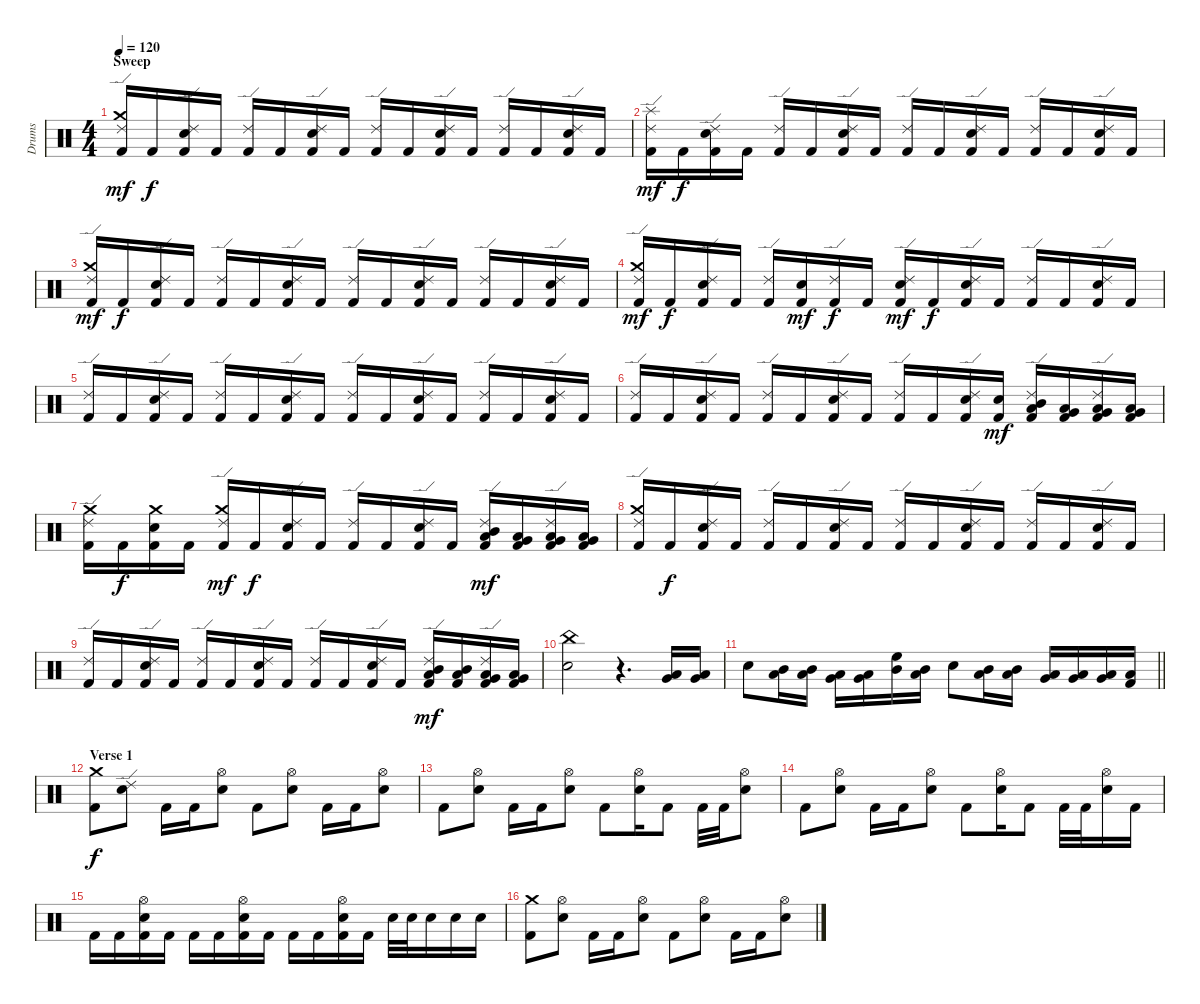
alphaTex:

\track ("Drums" "Drums") {instrument percussion}
\staff {score}
\articulation defaults
\ts (4 4)
\section ("" "Sweep")
\tempo 120
\clef neutral
\ks c
("Ride (edge) 2" "Crash medium (hit)" "Kick (hit) 2").16{dy mf} "Kick (hit) 2".16{dy f} ("Ride (edge) 2" "Electric Snare (hit)" "Kick (hit) 2").16 "Kick (hit) 2".16 ("Ride (edge) 2" "Kick (hit) 2").16 "Kick (hit) 2".16 ("Ride (edge) 2" "Electric Snare (hit)" "Kick (hit) 2").16 "Kick (hit) 2".16 ("Ride (edge) 2" "Kick (hit) 2").16 "Kick (hit) 2".16 ("Ride (edge) 2" "Electric Snare (hit)" "Kick (hit) 2").16 "Kick (hit) 2".16 ("Ride (edge) 2" "Kick (hit) 2").16 "Kick (hit) 2".16 ("Ride (edge) 2" "Electric Snare (hit)" "Kick (hit) 2").16 "Kick (hit) 2".16 |
("Ride (edge) 2" "Splash (hit)" "Kick (hit) 2").16{dy mf} "Kick (hit) 2".16{dy f} ("Ride (edge) 2" "Electric Snare (hit)" "Kick (hit) 2").16 "Kick (hit) 2".16 ("Ride (edge) 2" "Kick (hit) 2").16 "Kick (hit) 2".16 ("Ride (edge) 2" "Electric Snare (hit)" "Kick (hit) 2").16 "Kick (hit) 2".16 ("Ride (edge) 2" "Kick (hit) 2").16 "Kick (hit) 2".16 ("Ride (edge) 2" "Electric Snare (hit)" "Kick (hit) 2").16 "Kick (hit) 2".16 ("Ride (edge) 2" "Kick (hit) 2").16 "Kick (hit) 2".16 ("Ride (edge) 2" "Electric Snare (hit)" "Kick (hit) 2").16 "Kick (hit) 2".16 |
("Ride (edge) 2" "Crash medium (hit)" "Kick (hit) 2").16{dy mf} "Kick (hit) 2".16{dy f} ("Ride (edge) 2" "Electric Snare (hit)" "Kick (hit) 2").16 "Kick (hit) 2".16 ("Ride (edge) 2" "Kick (hit) 2").16 "Kick (hit) 2".16 ("Ride (edge) 2" "Electric Snare (hit)" "Kick (hit) 2").16 "Kick (hit) 2".16 ("Ride (edge) 2" "Kick (hit) 2").16 "Kick (hit) 2".16 ("Ride (edge) 2" "Electric Snare (hit)" "Kick (hit) 2").16 "Kick (hit) 2".16 ("Ride (edge) 2" "Kick (hit) 2").16 "Kick (hit) 2".16 ("Ride (edge) 2" "Electric Snare (hit)" "Kick (hit) 2").16 "Kick (hit) 2".16 |
("Ride (edge) 2" "Crash medium (hit)" "Kick (hit) 2").16{dy mf} "Kick (hit) 2".16{dy f} ("Ride (edge) 2" "Electric Snare (hit)" "Kick (hit) 2").16 "Kick (hit) 2".16 ("Ride (edge) 2" "Kick (hit) 2").16 ("Electric Snare (hit)" "Kick (hit) 2").16{dy mf} ("Ride (edge) 2" "Kick (hit) 2").16{dy f} "Kick (hit) 2".16 ("Ride (edge) 2" "Electric Snare (hit)" "Kick (hit) 2").16{dy mf} "Kick (hit) 2".16{dy f} ("Ride (edge) 2" "Electric Snare (hit)" "Kick (hit) 2").16 "Kick (hit) 2".16 ("Ride (edge) 2" "Kick (hit) 2").16 "Kick (hit) 2".16 ("Ride (edge) 2" "Electric Snare (hit)" "Kick (hit) 2").16 "Kick (hit) 2".16 |
("Ride (edge) 2" "Kick (hit) 2").16 "Kick (hit) 2".16 ("Ride (edge) 2" "Electric Snare (hit)" "Kick (hit) 2").16 "Kick (hit) 2".16 ("Ride (edge) 2" "Kick (hit) 2").16 "Kick (hit) 2".16 ("Ride (edge) 2" "Electric Snare (hit)" "Kick (hit) 2").16 "Kick (hit) 2".16 ("Ride (edge) 2" "Kick (hit) 2").16 "Kick (hit) 2".16 ("Ride (edge) 2" "Electric Snare (hit)" "Kick (hit) 2").16 "Kick (hit) 2".16 ("Ride (edge) 2" "Kick (hit) 2").16 "Kick (hit) 2".16 ("Ride (edge) 2" "Electric Snare (hit)" "Kick (hit) 2").16 "Kick (hit) 2".16 |
("Ride (edge) 2" "Kick (hit) 2").16 "Kick (hit) 2".16 ("Ride (edge) 2" "Electric Snare (hit)" "Kick (hit) 2").16 "Kick (hit) 2".16 ("Ride (edge) 2" "Kick (hit) 2").16 "Kick (hit) 2".16 ("Ride (edge) 2" "Electric Snare (hit)" "Kick (hit) 2").16 "Kick (hit) 2".16 ("Ride (edge) 2" "Kick (hit) 2").16 "Kick (hit) 2".16 ("Ride (edge) 2" "Electric Snare (hit)" "Kick (hit) 2").16 ("Electric Snare (hit)" "Kick (hit) 2").16{dy mf} ("Ride (edge) 2" "Mid Tom (hit)" "Low Tom (hit)" "Kick (hit) 2").16 ("Low Tom (hit)" "Very Low Tom (hit)" "Kick (hit) 2").16 ("Ride (edge) 2" "Very Low Tom (hit)" "Low Floor Tom (hit)" "Kick (hit) 2").16 ("Very Low Tom (hit)" "Low Floor Tom (hit)" "Kick (hit) 2").16 |
("Ride (edge) 2" "Crash medium (hit)" "Kick (hit) 2").16 "Kick (hit) 2".16{dy f} ("Crash medium (hit)" "Electric Snare (hit)" "Kick (hit) 2").16 "Kick (hit) 2".16 ("Ride (edge) 2" "Crash medium (hit)" "Kick (hit) 2").16{dy mf} "Kick (hit) 2".16{dy f} ("Ride (edge) 2" "Electric Snare (hit)" "Kick (hit) 2").16 "Kick (hit) 2".16 ("Ride (edge) 2" "Kick (hit) 2").16 "Kick (hit) 2".16 ("Ride (edge) 2" "Electric Snare (hit)" "Kick (hit) 2").16 "Kick (hit) 2".16 ("Ride (edge) 2" "Mid Tom (hit)" "Low Tom (hit)" "Kick (hit) 2").16{dy mf} ("Low Tom (hit)" "Very Low Tom (hit)" "Kick (hit) 2").16 ("Ride (edge) 2" "Very Low Tom (hit)" "Low Floor Tom (hit)" "Kick (hit) 2").16 ("Very Low Tom (hit)" "Low Floor Tom (hit)" "Kick (hit) 2").16 |
("Ride (edge) 2" "Crash medium (hit)" "Kick (hit) 2").16 "Kick (hit) 2".16{dy f} ("Ride (edge) 2" "Electric Snare (hit)" "Kick (hit) 2").16 "Kick (hit) 2".16 ("Ride (edge) 2" "Kick (hit) 2").16 "Kick (hit) 2".16 ("Ride (edge) 2" "Electric Snare (hit)" "Kick (hit) 2").16 "Kick (hit) 2".16 ("Ride (edge) 2" "Kick (hit) 2").16 "Kick (hit) 2".16 ("Ride (edge) 2" "Electric Snare (hit)" "Kick (hit) 2").16 "Kick (hit) 2".16 ("Ride (edge) 2" "Kick (hit) 2").16 "Kick (hit) 2".16 ("Ride (edge) 2" "Electric Snare (hit)" "Kick (hit) 2").16 "Kick (hit) 2".16 |
("Ride (edge) 2" "Kick (hit) 2").16 "Kick (hit) 2".16 ("Ride (edge) 2" "Electric Snare (hit)" "Kick (hit) 2").16 "Kick (hit) 2".16 ("Ride (edge) 2" "Kick (hit) 2").16 "Kick (hit) 2".16 ("Ride (edge) 2" "Electric Snare (hit)" "Kick (hit) 2").16 "Kick (hit) 2".16 ("Ride (edge) 2" "Kick (hit) 2").16 "Kick (hit) 2".16 ("Ride (edge) 2" "Electric Snare (hit)" "Kick (hit) 2").16 "Kick (hit) 2".16 ("Ride (edge) 2" "Mid Tom (hit)" "Low Tom (hit)" "Kick (hit) 2").16{dy mf} ("Mid Tom (hit)" "Low Tom (hit)" "Kick (hit) 2").16 ("Ride (edge) 2" "Low Tom (hit)" "Very Low Tom (hit)" "Kick (hit) 2").16 ("Very Low Tom (hit)" "Low Floor Tom (hit)" "Kick (hit) 2").16 |
("China (hit)" "Electric Snare (hit)").2 r.4{d} ("Low Tom (hit)" "Very Low Tom (hit)").16 ("Low Tom (hit)" "Very Low Tom (hit)").16 |
\barLineRight lightlight "Electric Snare (hit)".8
("Mid Tom (hit)" "Low Tom (hit)").16 ("Mid Tom (hit)" "Low Tom (hit)").16 ("Low Tom (hit)" "Very Low Tom (hit)").16 ("Very Low Tom (hit)" "Low Floor Tom (hit)").16 ("High Floor Tom (hit)" "Mid Tom (hit)").16 ("Mid Tom (hit)" "Low Tom (hit)").16 "Electric Snare (hit)".8 ("Mid Tom (hit)" "Low Tom (hit)").16 ("Mid Tom (hit)" "Low Tom (hit)").16 ("Low Tom (hit)" "Very Low Tom (hit)").16 ("Low Tom (hit)" "Very Low Tom (hit)").16 ("Very Low Tom (hit)" "Low Floor Tom (hit)").16 ("Low Floor Tom (hit)" "Kick (hit) 2").16 |
\section ("" "Verse 1")
("Crash medium (hit)" "Kick (hit) 2").8{dy f} ("Ride (edge) 2" "Electric Snare (hit)").8 "Kick (hit) 2".16 "Kick (hit) 2".16 ("Hi-Hat (open)" "Electric Snare (hit)").8 "Kick (hit) 2".8 ("Hi-Hat (open)" "Electric Snare (hit)").8 "Kick (hit) 2".16 "Kick (hit) 2".16 ("Hi-Hat (open)" "Electric Snare (hit)").8 |
"Kick (hit) 2".8 ("Hi-Hat (open)" "Electric Snare (hit)").8 "Kick (hit) 2".16 "Kick (hit) 2".16 ("Hi-Hat (open)" "Electric Snare (hit)").8 "Kick (hit) 2".8 ("Hi-Hat (open)" "Electric Snare (hit)").16 "Kick (hit) 2".8 "Kick (hit) 2".32 "Kick (hit) 2".32 ("Hi-Hat (open)" "Electric Snare (hit)").8 |
"Kick (hit) 2".8 ("Hi-Hat (open)" "Electric Snare (hit)").8 "Kick (hit) 2".16 "Kick (hit) 2".16 ("Hi-Hat (open)" "Electric Snare (hit)").8 "Kick (hit) 2".8 ("Hi-Hat (open)" "Electric Snare (hit)").16 "Kick (hit) 2".8 "Kick (hit) 2".32 "Kick (hit) 2".32 ("Hi-Hat (open)" "Electric Snare (hit)").16 "Kick (hit) 2".16 |
"Kick (hit) 2".16 "Kick (hit) 2".16 ("Hi-Hat (open)" "Electric Snare (hit)" "Kick (hit) 2").16 "Kick (hit) 2".16 "Kick (hit) 2".16 "Kick (hit) 2".16 ("Hi-Hat (open)" "Electric Snare (hit)" "Kick (hit) 2").16 "Kick (hit) 2".16 "Kick (hit) 2".16 "Kick (hit) 2".16 ("Hi-Hat (open)" "Electric Snare (hit)" "Kick (hit) 2").16 "Kick (hit) 2".16 "Electric Snare (hit)".32 "Electric Snare (hit)".32 "Electric Snare (hit)".16 "Electric Snare (hit)".16 "Electric Snare (hit)".16 |
("Crash medium (hit)" "Kick (hit) 2").8 ("Hi-Hat (open)" "Electric Snare (hit)").8 "Kick (hit) 2".16 "Kick (hit) 2".16 ("Hi-Hat (open)" "Electric Snare (hit)").8 "Kick (hit) 2".8 ("Hi-Hat (open)" "Electric Snare (hit)").8 "Kick (hit) 2".16 "Kick (hit) 2".16 ("Hi-Hat (open)" "Electric Snare (hit)").8
